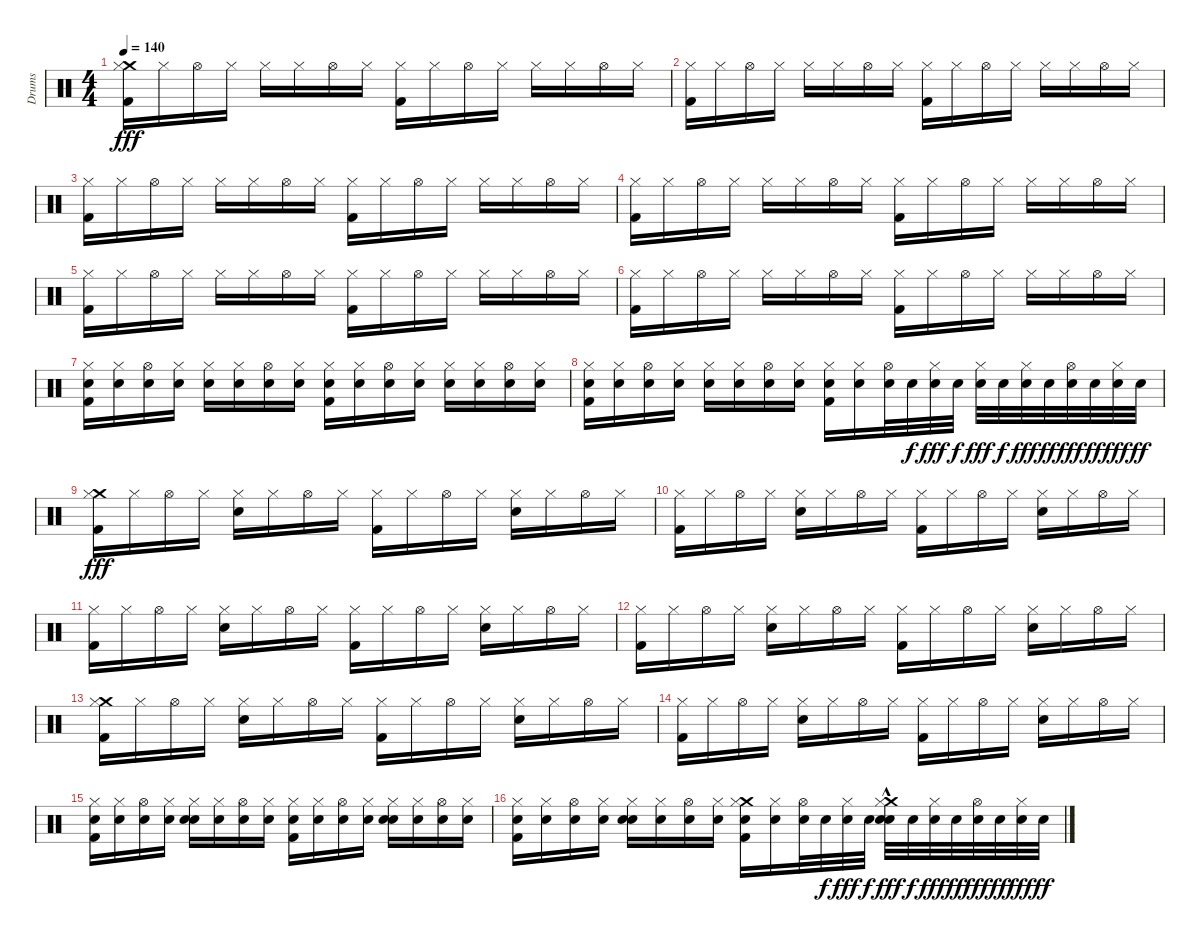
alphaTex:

\track ("Drums" "Drums") {instrument percussion}
\staff {score}
\articulation defaults
\ts (4 4)
\tempo 140
\clef neutral
\ks c
("Crash medium (hit)" "Hi-Hat (closed)" "Kick (hit) 2").16{dy fff} "Hi-Hat (closed)".16 "Hi-Hat (open)".16 "Hi-Hat (closed)".16 "Hi-Hat (closed)".16 "Hi-Hat (closed)".16 "Hi-Hat (open)".16 "Hi-Hat (closed)".16 ("Hi-Hat (closed)" "Kick (hit) 2").16 "Hi-Hat (closed)".16 "Hi-Hat (open)".16 "Hi-Hat (closed)".16 "Hi-Hat (closed)".16 "Hi-Hat (closed)".16 "Hi-Hat (open)".16 "Hi-Hat (closed)".16 |
("Hi-Hat (closed)" "Kick (hit) 2").16 "Hi-Hat (closed)".16 "Hi-Hat (open)".16 "Hi-Hat (closed)".16 "Hi-Hat (closed)".16 "Hi-Hat (closed)".16 "Hi-Hat (open)".16 "Hi-Hat (closed)".16 ("Hi-Hat (closed)" "Kick (hit) 2").16 "Hi-Hat (closed)".16 "Hi-Hat (open)".16 "Hi-Hat (closed)".16 "Hi-Hat (closed)".16 "Hi-Hat (closed)".16 "Hi-Hat (open)".16 "Hi-Hat (closed)".16 |
("Hi-Hat (closed)" "Kick (hit) 2").16 "Hi-Hat (closed)".16 "Hi-Hat (open)".16 "Hi-Hat (closed)".16 "Hi-Hat (closed)".16 "Hi-Hat (closed)".16 "Hi-Hat (open)".16 "Hi-Hat (closed)".16 ("Hi-Hat (closed)" "Kick (hit) 2").16 "Hi-Hat (closed)".16 "Hi-Hat (open)".16 "Hi-Hat (closed)".16 "Hi-Hat (closed)".16 "Hi-Hat (closed)".16 "Hi-Hat (open)".16 "Hi-Hat (closed)".16 |
("Hi-Hat (closed)" "Kick (hit) 2").16 "Hi-Hat (closed)".16 "Hi-Hat (open)".16 "Hi-Hat (closed)".16 "Hi-Hat (closed)".16 "Hi-Hat (closed)".16 "Hi-Hat (open)".16 "Hi-Hat (closed)".16 ("Hi-Hat (closed)" "Kick (hit) 2").16 "Hi-Hat (closed)".16 "Hi-Hat (open)".16 "Hi-Hat (closed)".16 "Hi-Hat (closed)".16 "Hi-Hat (closed)".16 "Hi-Hat (open)".16 "Hi-Hat (closed)".16 |
("Hi-Hat (closed)" "Kick (hit) 2").16 "Hi-Hat (closed)".16 "Hi-Hat (open)".16 "Hi-Hat (closed)".16 "Hi-Hat (closed)".16 "Hi-Hat (closed)".16 "Hi-Hat (open)".16 "Hi-Hat (closed)".16 ("Hi-Hat (closed)" "Kick (hit) 2").16 "Hi-Hat (closed)".16 "Hi-Hat (open)".16 "Hi-Hat (closed)".16 "Hi-Hat (closed)".16 "Hi-Hat (closed)".16 "Hi-Hat (open)".16 "Hi-Hat (closed)".16 |
("Hi-Hat (closed)" "Kick (hit) 2").16 "Hi-Hat (closed)".16 "Hi-Hat (open)".16 "Hi-Hat (closed)".16 "Hi-Hat (closed)".16 "Hi-Hat (closed)".16 "Hi-Hat (open)".16 "Hi-Hat (closed)".16 ("Hi-Hat (closed)" "Kick (hit) 2").16 "Hi-Hat (closed)".16 "Hi-Hat (open)".16 "Hi-Hat (closed)".16 "Hi-Hat (closed)".16 "Hi-Hat (closed)".16 "Hi-Hat (open)".16 "Hi-Hat (closed)".16 |
("Snare (hit) 2" "Hi-Hat (closed)" "Kick (hit) 2").16 ("Snare (hit) 2" "Hi-Hat (closed)").16 ("Snare (hit) 2" "Hi-Hat (open)").16 ("Snare (hit) 2" "Hi-Hat (closed)").16 ("Snare (hit) 2" "Hi-Hat (closed)").16 ("Snare (hit) 2" "Hi-Hat (closed)").16 ("Snare (hit) 2" "Hi-Hat (open)").16 ("Snare (hit) 2" "Hi-Hat (closed)").16 ("Snare (hit) 2" "Hi-Hat (closed)" "Kick (hit) 2").16 ("Snare (hit) 2" "Hi-Hat (closed)").16 ("Snare (hit) 2" "Hi-Hat (open)").16 ("Snare (hit) 2" "Hi-Hat (closed)").16 ("Snare (hit) 2" "Hi-Hat (closed)").16 ("Snare (hit) 2" "Hi-Hat (closed)").16 ("Snare (hit) 2" "Hi-Hat (open)").16 ("Snare (hit) 2" "Hi-Hat (closed)").16 |
("Snare (hit) 2" "Hi-Hat (closed)" "Kick (hit) 2").16 ("Snare (hit) 2" "Hi-Hat (closed)").16 ("Snare (hit) 2" "Hi-Hat (open)").16 ("Snare (hit) 2" "Hi-Hat (closed)").16 ("Snare (hit) 2" "Hi-Hat (closed)").16 ("Snare (hit) 2" "Hi-Hat (closed)").16 ("Snare (hit) 2" "Hi-Hat (open)").16 ("Snare (hit) 2" "Hi-Hat (closed)").16 ("Snare (hit) 2" "Hi-Hat (closed)" "Kick (hit) 2").16 ("Snare (hit) 2" "Hi-Hat (closed)").16 ("Snare (hit) 2" "Hi-Hat (open)").32 "Snare (hit) 2".32{dy f} ("Snare (hit) 2" "Hi-Hat (closed)").32{dy fff} "Snare (hit) 2".32{dy f} ("Snare (hit) 2" "Hi-Hat (closed)").32{dy fff} "Snare (hit) 2".32{dy f} ("Snare (hit) 2" "Hi-Hat (closed)").32{dy fff} "Snare (hit) 2".32{dy ff} ("Snare (hit) 2" "Hi-Hat (open)").32{dy fff} "Snare (hit) 2".32{dy ff} ("Snare (hit) 2" "Hi-Hat (closed)").32{dy fff} "Snare (hit) 2".32{dy ff} |
("Crash medium (hit)" "Hi-Hat (closed)" "Kick (hit) 2").16{dy fff} "Hi-Hat (closed)".16 "Hi-Hat (open)".16 "Hi-Hat (closed)".16 ("Hi-Hat (closed)" "Electric Snare (hit)").16 "Hi-Hat (closed)".16 "Hi-Hat (open)".16 "Hi-Hat (closed)".16 ("Hi-Hat (closed)" "Kick (hit) 2").16 "Hi-Hat (closed)".16 "Hi-Hat (open)".16 "Hi-Hat (closed)".16 ("Hi-Hat (closed)" "Electric Snare (hit)").16 "Hi-Hat (closed)".16 "Hi-Hat (open)".16 "Hi-Hat (closed)".16 |
("Hi-Hat (closed)" "Kick (hit) 2").16 "Hi-Hat (closed)".16 "Hi-Hat (open)".16 "Hi-Hat (closed)".16 ("Hi-Hat (closed)" "Electric Snare (hit)").16 "Hi-Hat (closed)".16 "Hi-Hat (open)".16 "Hi-Hat (closed)".16 ("Hi-Hat (closed)" "Kick (hit) 2").16 "Hi-Hat (closed)".16 "Hi-Hat (open)".16 "Hi-Hat (closed)".16 ("Hi-Hat (closed)" "Electric Snare (hit)").16 "Hi-Hat (closed)".16 "Hi-Hat (open)".16 "Hi-Hat (closed)".16 |
("Hi-Hat (closed)" "Kick (hit) 2").16 "Hi-Hat (closed)".16 "Hi-Hat (open)".16 "Hi-Hat (closed)".16 ("Hi-Hat (closed)" "Electric Snare (hit)").16 "Hi-Hat (closed)".16 "Hi-Hat (open)".16 "Hi-Hat (closed)".16 ("Hi-Hat (closed)" "Kick (hit) 2").16 "Hi-Hat (closed)".16 "Hi-Hat (open)".16 "Hi-Hat (closed)".16 ("Hi-Hat (closed)" "Electric Snare (hit)").16 "Hi-Hat (closed)".16 "Hi-Hat (open)".16 "Hi-Hat (closed)".16 |
("Hi-Hat (closed)" "Kick (hit) 2").16 "Hi-Hat (closed)".16 "Hi-Hat (open)".16 "Hi-Hat (closed)".16 ("Hi-Hat (closed)" "Electric Snare (hit)").16 "Hi-Hat (closed)".16 "Hi-Hat (open)".16 "Hi-Hat (closed)".16 ("Hi-Hat (closed)" "Kick (hit) 2").16 "Hi-Hat (closed)".16 "Hi-Hat (open)".16 "Hi-Hat (closed)".16 ("Hi-Hat (closed)" "Electric Snare (hit)").16 "Hi-Hat (closed)".16 "Hi-Hat (open)".16 "Hi-Hat (closed)".16 |
("Crash medium (hit)" "Hi-Hat (closed)" "Kick (hit) 2").16 "Hi-Hat (closed)".16 "Hi-Hat (open)".16 "Hi-Hat (closed)".16 ("Hi-Hat (closed)" "Electric Snare (hit)").16 "Hi-Hat (closed)".16 "Hi-Hat (open)".16 "Hi-Hat (closed)".16 ("Hi-Hat (closed)" "Kick (hit) 2").16 "Hi-Hat (closed)".16 "Hi-Hat (open)".16 "Hi-Hat (closed)".16 ("Hi-Hat (closed)" "Electric Snare (hit)").16 "Hi-Hat (closed)".16 "Hi-Hat (open)".16 "Hi-Hat (closed)".16 |
("Hi-Hat (closed)" "Kick (hit) 2").16 "Hi-Hat (closed)".16 "Hi-Hat (open)".16 "Hi-Hat (closed)".16 ("Hi-Hat (closed)" "Electric Snare (hit)").16 "Hi-Hat (closed)".16 "Hi-Hat (open)".16 "Hi-Hat (closed)".16 ("Hi-Hat (closed)" "Kick (hit) 2").16 "Hi-Hat (closed)".16 "Hi-Hat (open)".16 "Hi-Hat (closed)".16 ("Hi-Hat (closed)" "Electric Snare (hit)").16 "Hi-Hat (closed)".16 "Hi-Hat (open)".16 "Hi-Hat (closed)".16 |
("Snare (hit) 2" "Hi-Hat (closed)" "Kick (hit) 2").16 ("Snare (hit) 2" "Hi-Hat (closed)").16 ("Snare (hit) 2" "Hi-Hat (open)").16 ("Snare (hit) 2" "Hi-Hat (closed)").16 ("Snare (hit) 2" "Hi-Hat (closed)" "Electric Snare (hit)").16 ("Snare (hit) 2" "Hi-Hat (closed)").16 ("Snare (hit) 2" "Hi-Hat (open)").16 ("Snare (hit) 2" "Hi-Hat (closed)").16 ("Snare (hit) 2" "Hi-Hat (closed)" "Kick (hit) 2").16 ("Snare (hit) 2" "Hi-Hat (closed)").16 ("Snare (hit) 2" "Hi-Hat (open)").16 ("Snare (hit) 2" "Hi-Hat (closed)").16 ("Snare (hit) 2" "Hi-Hat (closed)" "Electric Snare (hit)").16 ("Snare (hit) 2" "Hi-Hat (closed)").16 ("Snare (hit) 2" "Hi-Hat (open)").16 ("Snare (hit) 2" "Hi-Hat (closed)").16 |
("Snare (hit) 2" "Hi-Hat (closed)" "Kick (hit) 2").16 ("Snare (hit) 2" "Hi-Hat (closed)").16 ("Snare (hit) 2" "Hi-Hat (open)").16 ("Snare (hit) 2" "Hi-Hat (closed)").16 ("Snare (hit) 2" "Hi-Hat (closed)" "Electric Snare (hit)").16 ("Snare (hit) 2" "Hi-Hat (closed)").16 ("Snare (hit) 2" "Hi-Hat (open)").16 ("Snare (hit) 2" "Hi-Hat (closed)").16 ("Crash medium (hit)" "Snare (hit) 2" "Hi-Hat (closed)" "Kick (hit) 2").16 ("Snare (hit) 2" "Hi-Hat (closed)").16 ("Snare (hit) 2" "Hi-Hat (open)").32 "Snare (hit) 2".32{dy f} ("Snare (hit) 2" "Hi-Hat (closed)").32{dy fff} "Snare (hit) 2".32{dy f} ("Crash medium (hit)"{hac} "Snare (hit) 2" "Hi-Hat (closed)" "Electric Snare (hit)").32{dy fff} "Snare (hit) 2".32{dy f} ("Snare (hit) 2" "Hi-Hat (closed)").32{dy fff} "Snare (hit) 2".32{dy ff} ("Snare (hit) 2" "Hi-Hat (open)").32{dy fff} "Snare (hit) 2".32{dy ff} ("Snare (hit) 2" "Hi-Hat (closed)").32{dy fff} "Snare (hit) 2".32{dy ff}
